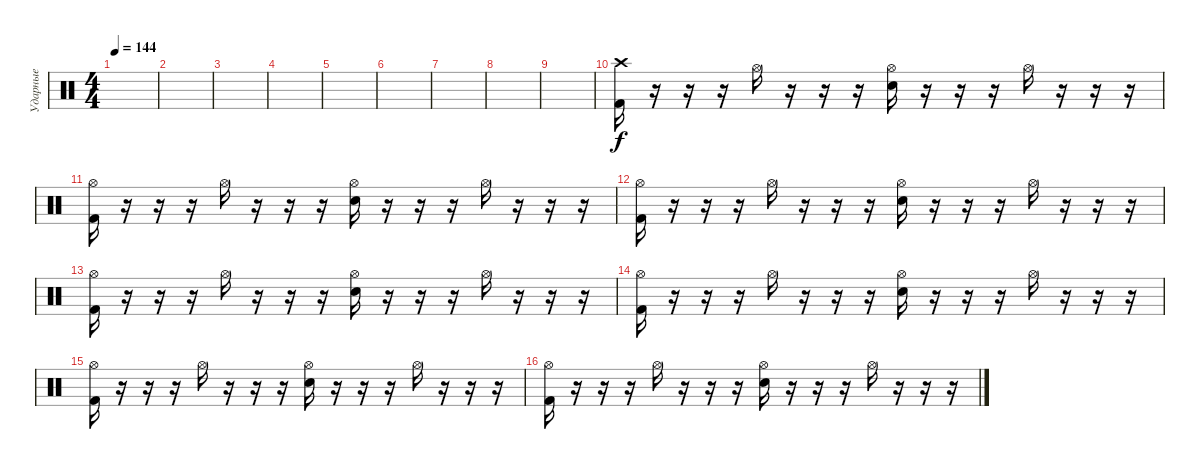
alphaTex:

\track ("Ударные" "Ударные") {instrument percussion}
\staff {score}
\articulation defaults
\ts (4 4)
\tempo 144
\clef neutral
\ks c
|
|
|
|
|
|
|
|
|
("Crash high (hit)" "Kick (hit) 2").16 r.16 r.16 r.16 "Hi-Hat (open)".16 r.16 r.16 r.16 ("Hi-Hat (open)" "Electric Snare (hit)").16 r.16 r.16 r.16 "Hi-Hat (open)".16 r.16 r.16 r.16 |
("Hi-Hat (open)" "Kick (hit) 2").16 r.16 r.16 r.16 "Hi-Hat (open)".16 r.16 r.16 r.16 ("Hi-Hat (open)" "Electric Snare (hit)").16 r.16 r.16 r.16 "Hi-Hat (open)".16 r.16 r.16 r.16 |
("Hi-Hat (open)" "Kick (hit) 2").16 r.16 r.16 r.16 "Hi-Hat (open)".16 r.16 r.16 r.16 ("Hi-Hat (open)" "Electric Snare (hit)").16 r.16 r.16 r.16 "Hi-Hat (open)".16 r.16 r.16 r.16 |
("Hi-Hat (open)" "Kick (hit) 2").16 r.16 r.16 r.16 "Hi-Hat (open)".16 r.16 r.16 r.16 ("Hi-Hat (open)" "Electric Snare (hit)").16 r.16 r.16 r.16 "Hi-Hat (open)".16 r.16 r.16 r.16 |
("Hi-Hat (open)" "Kick (hit) 2").16 r.16 r.16 r.16 "Hi-Hat (open)".16 r.16 r.16 r.16 ("Hi-Hat (open)" "Electric Snare (hit)").16 r.16 r.16 r.16 "Hi-Hat (open)".16 r.16 r.16 r.16 |
("Hi-Hat (open)" "Kick (hit) 2").16 r.16 r.16 r.16 "Hi-Hat (open)".16 r.16 r.16 r.16 ("Hi-Hat (open)" "Electric Snare (hit)").16 r.16 r.16 r.16 "Hi-Hat (open)".16 r.16 r.16 r.16 |
("Hi-Hat (open)" "Kick (hit) 2").16 r.16 r.16 r.16 "Hi-Hat (open)".16 r.16 r.16 r.16 ("Hi-Hat (open)" "Electric Snare (hit)").16 r.16 r.16 r.16 "Hi-Hat (open)".16 r.16 r.16 r.16
